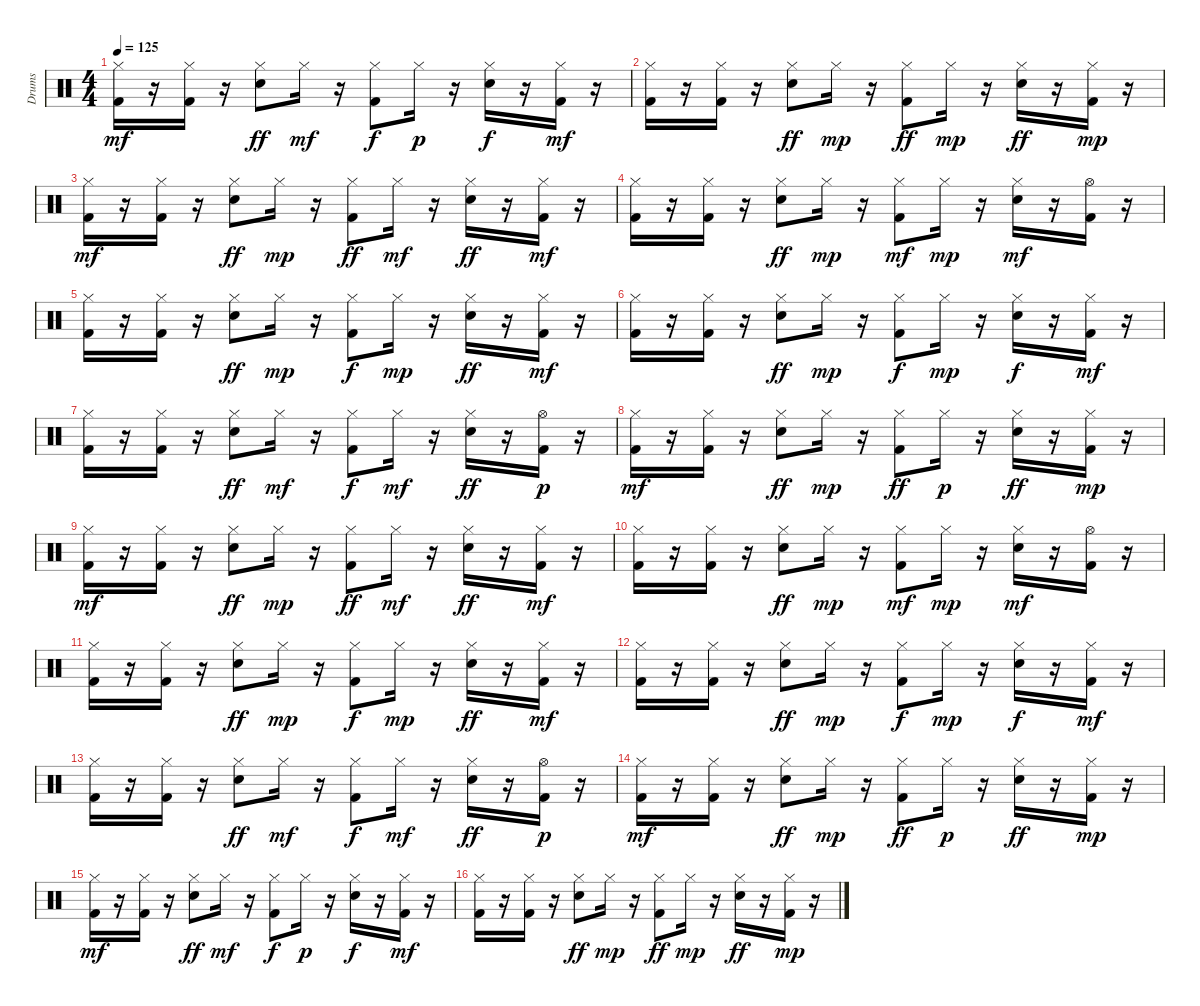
\track ("Drums" "Drums") {instrument percussion}
\staff {score}
\articulation defaults
\ts (4 4)
\tempo 125
\clef neutral
\ks c
("Hi-Hat (closed)" "Kick (hit) 2").16{dy mf} r.16 ("Hi-Hat (closed)" "Kick (hit) 2").16 r.16 ("Snare (hit) 2" "Hi-Hat (closed)").8{dy ff} "Hi-Hat (closed)".16{dy mf} r.16 ("Kick (hit) 2" "Hi-Hat (closed)").8{dy f} "Hi-Hat (closed)".16{dy p} r.16 ("Snare (hit) 2" "Hi-Hat (closed)").16{dy f} r.16 ("Hi-Hat (closed)" "Kick (hit) 2").16{dy mf} r.16 |
("Hi-Hat (closed)" "Kick (hit) 2").16 r.16 ("Hi-Hat (closed)" "Kick (hit) 2").16 r.16 ("Snare (hit) 2" "Hi-Hat (closed)").8{dy ff} "Hi-Hat (closed)".16{dy mp} r.16 ("Kick (hit) 2" "Hi-Hat (closed)").8{dy ff} "Hi-Hat (closed)".16{dy mp} r.16 ("Snare (hit) 2" "Hi-Hat (closed)").16{dy ff} r.16 ("Hi-Hat (closed)" "Kick (hit) 2").16{dy mp} r.16 |
("Hi-Hat (closed)" "Kick (hit) 2").16{dy mf} r.16 ("Hi-Hat (closed)" "Kick (hit) 2").16 r.16 ("Hi-Hat (closed)" "Snare (hit) 2").8{dy ff} "Hi-Hat (closed)".16{dy mp} r.16 ("Hi-Hat (closed)" "Kick (hit) 2").8{dy ff} "Hi-Hat (closed)".16{dy mf} r.16 ("Snare (hit) 2" "Hi-Hat (closed)").16{dy ff} r.16 ("Kick (hit) 2" "Hi-Hat (closed)").16{dy mf} r.16 |
("Hi-Hat (closed)" "Kick (hit) 2").16 r.16 ("Kick (hit) 2" "Hi-Hat (closed)").16 r.16 ("Hi-Hat (closed)" "Snare (hit) 2").8{dy ff} "Hi-Hat (closed)".16{dy mp} r.16 ("Kick (hit) 2" "Hi-Hat (closed)").8{dy mf} "Hi-Hat (closed)".16{dy mp} r.16 ("Snare (hit) 2" "Hi-Hat (closed)").16{dy mf} r.16 ("Hi-Hat (open)" "Kick (hit) 2").16 r.16 |
("Hi-Hat (closed)" "Kick (hit) 2").16 r.16 ("Hi-Hat (closed)" "Kick (hit) 2").16 r.16 ("Snare (hit) 2" "Hi-Hat (closed)").8{dy ff} "Hi-Hat (closed)".16{dy mp} r.16 ("Hi-Hat (closed)" "Kick (hit) 2").8{dy f} "Hi-Hat (closed)".16{dy mp} r.16 ("Hi-Hat (closed)" "Snare (hit) 2").16{dy ff} r.16 ("Hi-Hat (closed)" "Kick (hit) 2").16{dy mf} r.16 |
("Hi-Hat (closed)" "Kick (hit) 2").16 r.16 ("Hi-Hat (closed)" "Kick (hit) 2").16 r.16 ("Hi-Hat (closed)" "Snare (hit) 2").8{dy ff} "Hi-Hat (closed)".16{dy mp} r.16 ("Hi-Hat (closed)" "Kick (hit) 2").8{dy f} "Hi-Hat (closed)".16{dy mp} r.16 ("Snare (hit) 2" "Hi-Hat (closed)").16{dy f} r.16 ("Kick (hit) 2" "Hi-Hat (closed)").16{dy mf} r.16 |
("Hi-Hat (closed)" "Kick (hit) 2").16 r.16 ("Kick (hit) 2" "Hi-Hat (closed)").16 r.16 ("Snare (hit) 2" "Hi-Hat (closed)").8{dy ff} "Hi-Hat (closed)".16{dy mf} r.16 ("Kick (hit) 2" "Hi-Hat (closed)").8{dy f} "Hi-Hat (closed)".16{dy mf} r.16 ("Hi-Hat (closed)" "Snare (hit) 2").16{dy ff} r.16 ("Kick (hit) 2" "Hi-Hat (open)").16{dy p} r.16 |
("Hi-Hat (closed)" "Kick (hit) 2").16{dy mf} r.16 ("Kick (hit) 2" "Hi-Hat (closed)").16 r.16 ("Hi-Hat (closed)" "Snare (hit) 2").8{dy ff} "Hi-Hat (closed)".16{dy mp} r.16 ("Kick (hit) 2" "Hi-Hat (closed)").8{dy ff} "Hi-Hat (closed)".16{dy p} r.16 ("Hi-Hat (closed)" "Snare (hit) 2").16{dy ff} r.16 ("Hi-Hat (closed)" "Kick (hit) 2").16{dy mp} r.16 |
("Hi-Hat (closed)" "Kick (hit) 2").16{dy mf} r.16 ("Hi-Hat (closed)" "Kick (hit) 2").16 r.16 ("Hi-Hat (closed)" "Snare (hit) 2").8{dy ff} "Hi-Hat (closed)".16{dy mp} r.16 ("Hi-Hat (closed)" "Kick (hit) 2").8{dy ff} "Hi-Hat (closed)".16{dy mf} r.16 ("Snare (hit) 2" "Hi-Hat (closed)").16{dy ff} r.16 ("Kick (hit) 2" "Hi-Hat (closed)").16{dy mf} r.16 |
("Hi-Hat (closed)" "Kick (hit) 2").16 r.16 ("Kick (hit) 2" "Hi-Hat (closed)").16 r.16 ("Hi-Hat (closed)" "Snare (hit) 2").8{dy ff} "Hi-Hat (closed)".16{dy mp} r.16 ("Kick (hit) 2" "Hi-Hat (closed)").8{dy mf} "Hi-Hat (closed)".16{dy mp} r.16 ("Snare (hit) 2" "Hi-Hat (closed)").16{dy mf} r.16 ("Hi-Hat (open)" "Kick (hit) 2").16 r.16 |
("Hi-Hat (closed)" "Kick (hit) 2").16 r.16 ("Hi-Hat (closed)" "Kick (hit) 2").16 r.16 ("Snare (hit) 2" "Hi-Hat (closed)").8{dy ff} "Hi-Hat (closed)".16{dy mp} r.16 ("Hi-Hat (closed)" "Kick (hit) 2").8{dy f} "Hi-Hat (closed)".16{dy mp} r.16 ("Hi-Hat (closed)" "Snare (hit) 2").16{dy ff} r.16 ("Hi-Hat (closed)" "Kick (hit) 2").16{dy mf} r.16 |
("Hi-Hat (closed)" "Kick (hit) 2").16 r.16 ("Hi-Hat (closed)" "Kick (hit) 2").16 r.16 ("Hi-Hat (closed)" "Snare (hit) 2").8{dy ff} "Hi-Hat (closed)".16{dy mp} r.16 ("Hi-Hat (closed)" "Kick (hit) 2").8{dy f} "Hi-Hat (closed)".16{dy mp} r.16 ("Snare (hit) 2" "Hi-Hat (closed)").16{dy f} r.16 ("Kick (hit) 2" "Hi-Hat (closed)").16{dy mf} r.16 |
("Hi-Hat (closed)" "Kick (hit) 2").16 r.16 ("Kick (hit) 2" "Hi-Hat (closed)").16 r.16 ("Snare (hit) 2" "Hi-Hat (closed)").8{dy ff} "Hi-Hat (closed)".16{dy mf} r.16 ("Kick (hit) 2" "Hi-Hat (closed)").8{dy f} "Hi-Hat (closed)".16{dy mf} r.16 ("Hi-Hat (closed)" "Snare (hit) 2").16{dy ff} r.16 ("Kick (hit) 2" "Hi-Hat (open)").16{dy p} r.16 |
("Hi-Hat (closed)" "Kick (hit) 2").16{dy mf} r.16 ("Kick (hit) 2" "Hi-Hat (closed)").16 r.16 ("Hi-Hat (closed)" "Snare (hit) 2").8{dy ff} "Hi-Hat (closed)".16{dy mp} r.16 ("Kick (hit) 2" "Hi-Hat (closed)").8{dy ff} "Hi-Hat (closed)".16{dy p} r.16 ("Hi-Hat (closed)" "Snare (hit) 2").16{dy ff} r.16 ("Hi-Hat (closed)" "Kick (hit) 2").16{dy mp} r.16 |
("Hi-Hat (closed)" "Kick (hit) 2").16{dy mf} r.16 ("Hi-Hat (closed)" "Kick (hit) 2").16 r.16 ("Snare (hit) 2" "Hi-Hat (closed)").8{dy ff} "Hi-Hat (closed)".16{dy mf} r.16 ("Kick (hit) 2" "Hi-Hat (closed)").8{dy f} "Hi-Hat (closed)".16{dy p} r.16 ("Snare (hit) 2" "Hi-Hat (closed)").16{dy f} r.16 ("Hi-Hat (closed)" "Kick (hit) 2").16{dy mf} r.16 |
("Hi-Hat (closed)" "Kick (hit) 2").16 r.16 ("Hi-Hat (closed)" "Kick (hit) 2").16 r.16 ("Snare (hit) 2" "Hi-Hat (closed)").8{dy ff} "Hi-Hat (closed)".16{dy mp} r.16 ("Kick (hit) 2" "Hi-Hat (closed)").8{dy ff} "Hi-Hat (closed)".16{dy mp} r.16 ("Snare (hit) 2" "Hi-Hat (closed)").16{dy ff} r.16 ("Hi-Hat (closed)" "Kick (hit) 2").16{dy mp} r.16
